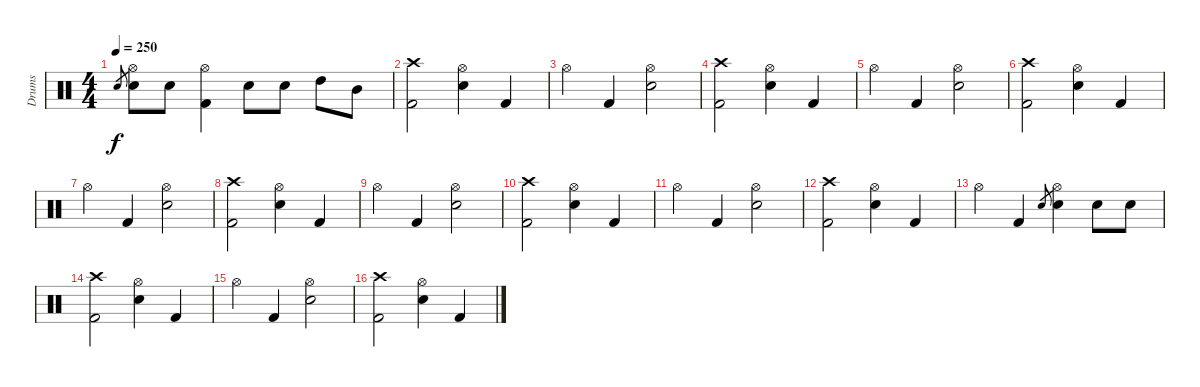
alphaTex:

\track ("Drums" "Drums") {instrument percussion}
\staff {score}
\articulation defaults
\ts (4 4)
\tempo 250
\clef neutral
\ks c "Electric Snare (hit)".8{gr dy f}
("Hi-Hat (open)" "Electric Snare (hit)").8 "Electric Snare (hit)".8 ("Hi-Hat (open)" "Kick (hit) 2").4 "Electric Snare (hit)".8 "Electric Snare (hit)".8 "High Tom (hit)".8 "Mid Tom (hit)".8 |
("Crash high (hit)" "Kick (hit) 2").2 ("Hi-Hat (open)" "Electric Snare (hit)").4 "Kick (hit) 2".4 |
"Hi-Hat (open)".4 "Kick (hit) 2".4 ("Hi-Hat (open)" "Electric Snare (hit)").2 |
("Crash high (hit)" "Kick (hit) 2").2 ("Hi-Hat (open)" "Electric Snare (hit)").4 "Kick (hit) 2".4 |
"Hi-Hat (open)".4 "Kick (hit) 2".4 ("Hi-Hat (open)" "Electric Snare (hit)").2 |
("Crash high (hit)" "Kick (hit) 2").2 ("Hi-Hat (open)" "Electric Snare (hit)").4 "Kick (hit) 2".4 |
"Hi-Hat (open)".4 "Kick (hit) 2".4 ("Hi-Hat (open)" "Electric Snare (hit)").2 |
("Crash high (hit)" "Kick (hit) 2").2 ("Hi-Hat (open)" "Electric Snare (hit)").4 "Kick (hit) 2".4 |
"Hi-Hat (open)".4 "Kick (hit) 2".4 ("Hi-Hat (open)" "Electric Snare (hit)").2 |
("Crash high (hit)" "Kick (hit) 2").2 ("Hi-Hat (open)" "Electric Snare (hit)").4 "Kick (hit) 2".4 |
"Hi-Hat (open)".4 "Kick (hit) 2".4 ("Hi-Hat (open)" "Electric Snare (hit)").2 |
("Crash high (hit)" "Kick (hit) 2").2 ("Hi-Hat (open)" "Electric Snare (hit)").4 "Kick (hit) 2".4 |
"Hi-Hat (open)".4 "Kick (hit) 2".4 "Electric Snare (hit)".8{gr} ("Hi-Hat (open)" "Electric Snare (hit)").4 "Electric Snare (hit)".8 "Electric Snare (hit)".8 |
("Crash high (hit)" "Kick (hit) 2").2 ("Hi-Hat (open)" "Electric Snare (hit)").4 "Kick (hit) 2".4 |
"Hi-Hat (open)".4 "Kick (hit) 2".4 ("Hi-Hat (open)" "Electric Snare (hit)").2 |
("Crash high (hit)" "Kick (hit) 2").2 ("Hi-Hat (open)" "Electric Snare (hit)").4 "Kick (hit) 2".4
